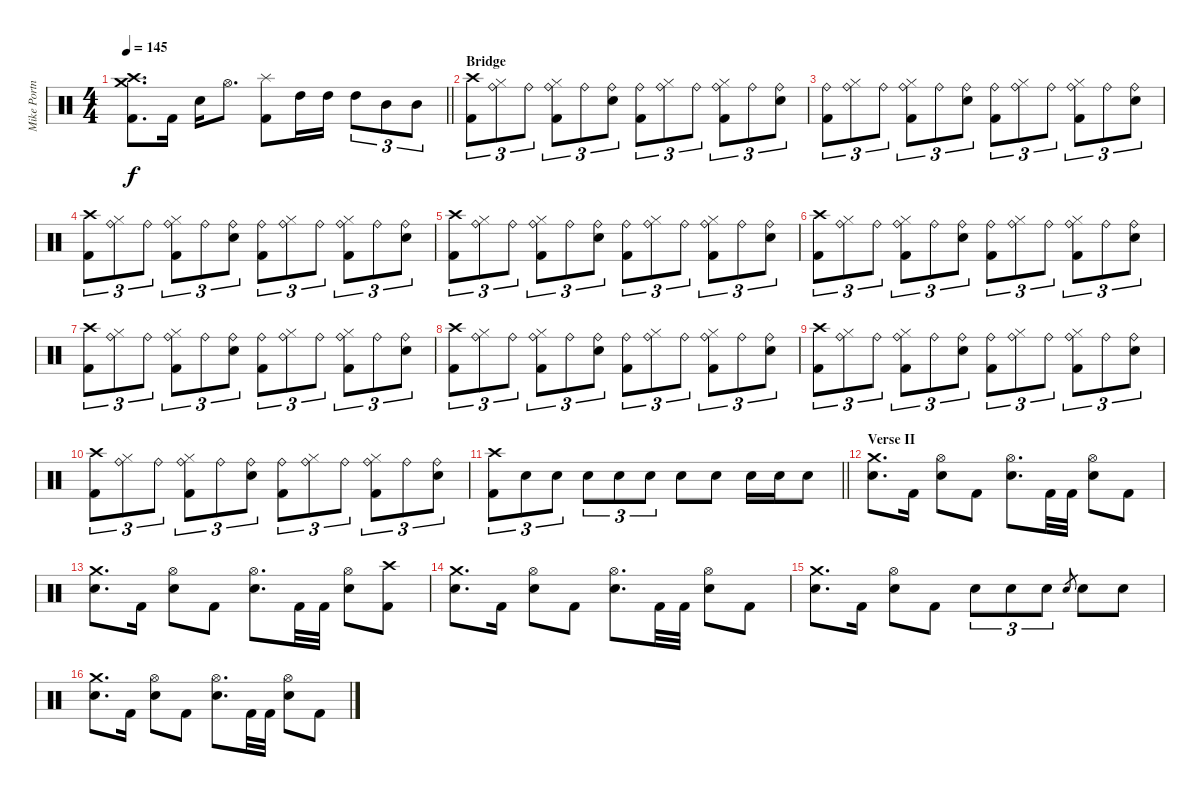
\track ("Mike Portnoy" "Mike Portn") {instrument percussion}
\staff {score}
\articulation defaults
\ts (4 4)
\tempo 145
\clef neutral
\barLineRight lightlight
\ks c
("Crash high (hit)" "Crash medium (hit)" "Kick (hit) 2").8{d dy f} "Kick (hit) 2".16 "Electric Snare (hit)".16 "Hi-Hat (open)".8{d} ("Splash (hit)" "Kick (hit) 2").8 "High Tom (hit)".16 "High Tom (hit)".16 "High Tom (hit)".8{tu (3 2)} "Mid Tom (hit)".8{tu (3 2)} "Mid Tom (hit)".8{tu (3 2)} |
\section ("" "Bridge")
("Crash high (hit)" "Kick (hit) 2").8{tu (3 2)} ("Ride (bell)" "Hi-Hat (closed)").8{tu (3 2)} "Ride (bell)".8{tu (3 2)} ("Ride (bell)" "Hi-Hat (closed)" "Kick (hit) 2").8{tu (3 2)} "Ride (bell)".8{tu (3 2)} ("Ride (bell)" "Electric Snare (hit)").8{tu (3 2)} ("Ride (bell)" "Kick (hit) 2").8{tu (3 2)} ("Ride (bell)" "Hi-Hat (closed)").8{tu (3 2)} "Ride (bell)".8{tu (3 2)} ("Ride (bell)" "Hi-Hat (closed)" "Kick (hit) 2").8{tu (3 2)} "Ride (bell)".8{tu (3 2)} ("Ride (bell)" "Electric Snare (hit)").8{tu (3 2)} |
("Ride (bell)" "Kick (hit) 2").8{tu (3 2)} ("Ride (bell)" "Hi-Hat (closed)").8{tu (3 2)} "Ride (bell)".8{tu (3 2)} ("Ride (bell)" "Hi-Hat (closed)" "Kick (hit) 2").8{tu (3 2)} "Ride (bell)".8{tu (3 2)} ("Ride (bell)" "Electric Snare (hit)").8{tu (3 2)} ("Ride (bell)" "Kick (hit) 2").8{tu (3 2)} ("Ride (bell)" "Hi-Hat (closed)").8{tu (3 2)} "Ride (bell)".8{tu (3 2)} ("Ride (bell)" "Hi-Hat (closed)" "Kick (hit) 2").8{tu (3 2)} "Ride (bell)".8{tu (3 2)} ("Ride (bell)" "Electric Snare (hit)").8{tu (3 2)} |
("Crash high (hit)" "Kick (hit) 2").8{tu (3 2)} ("Ride (bell)" "Hi-Hat (closed)").8{tu (3 2)} "Ride (bell)".8{tu (3 2)} ("Ride (bell)" "Hi-Hat (closed)" "Kick (hit) 2").8{tu (3 2)} "Ride (bell)".8{tu (3 2)} ("Ride (bell)" "Electric Snare (hit)").8{tu (3 2)} ("Ride (bell)" "Kick (hit) 2").8{tu (3 2)} ("Ride (bell)" "Hi-Hat (closed)").8{tu (3 2)} "Ride (bell)".8{tu (3 2)} ("Ride (bell)" "Hi-Hat (closed)" "Kick (hit) 2").8{tu (3 2)} "Ride (bell)".8{tu (3 2)} ("Ride (bell)" "Electric Snare (hit)").8{tu (3 2)} |
("Crash high (hit)" "Kick (hit) 2").8{tu (3 2)} ("Ride (bell)" "Hi-Hat (closed)").8{tu (3 2)} "Ride (bell)".8{tu (3 2)} ("Ride (bell)" "Hi-Hat (closed)" "Kick (hit) 2").8{tu (3 2)} "Ride (bell)".8{tu (3 2)} ("Ride (bell)" "Electric Snare (hit)").8{tu (3 2)} ("Ride (bell)" "Kick (hit) 2").8{tu (3 2)} ("Ride (bell)" "Hi-Hat (closed)").8{tu (3 2)} "Ride (bell)".8{tu (3 2)} ("Ride (bell)" "Hi-Hat (closed)" "Kick (hit) 2").8{tu (3 2)} "Ride (bell)".8{tu (3 2)} ("Ride (bell)" "Electric Snare (hit)").8{tu (3 2)} |
("Crash high (hit)" "Kick (hit) 2").8{tu (3 2)} ("Ride (bell)" "Hi-Hat (closed)").8{tu (3 2)} "Ride (bell)".8{tu (3 2)} ("Ride (bell)" "Hi-Hat (closed)" "Kick (hit) 2").8{tu (3 2)} "Ride (bell)".8{tu (3 2)} ("Ride (bell)" "Electric Snare (hit)").8{tu (3 2)} ("Ride (bell)" "Kick (hit) 2").8{tu (3 2)} ("Ride (bell)" "Hi-Hat (closed)").8{tu (3 2)} "Ride (bell)".8{tu (3 2)} ("Ride (bell)" "Hi-Hat (closed)" "Kick (hit) 2").8{tu (3 2)} "Ride (bell)".8{tu (3 2)} ("Ride (bell)" "Electric Snare (hit)").8{tu (3 2)} |
("Crash high (hit)" "Kick (hit) 2").8{tu (3 2)} ("Ride (bell)" "Hi-Hat (closed)").8{tu (3 2)} "Ride (bell)".8{tu (3 2)} ("Ride (bell)" "Hi-Hat (closed)" "Kick (hit) 2").8{tu (3 2)} "Ride (bell)".8{tu (3 2)} ("Ride (bell)" "Electric Snare (hit)").8{tu (3 2)} ("Ride (bell)" "Kick (hit) 2").8{tu (3 2)} ("Ride (bell)" "Hi-Hat (closed)").8{tu (3 2)} "Ride (bell)".8{tu (3 2)} ("Ride (bell)" "Hi-Hat (closed)" "Kick (hit) 2").8{tu (3 2)} "Ride (bell)".8{tu (3 2)} ("Ride (bell)" "Electric Snare (hit)").8{tu (3 2)} |
("Crash high (hit)" "Kick (hit) 2").8{tu (3 2)} ("Ride (bell)" "Hi-Hat (closed)").8{tu (3 2)} "Ride (bell)".8{tu (3 2)} ("Ride (bell)" "Hi-Hat (closed)" "Kick (hit) 2").8{tu (3 2)} "Ride (bell)".8{tu (3 2)} ("Ride (bell)" "Electric Snare (hit)").8{tu (3 2)} ("Ride (bell)" "Kick (hit) 2").8{tu (3 2)} ("Ride (bell)" "Hi-Hat (closed)").8{tu (3 2)} "Ride (bell)".8{tu (3 2)} ("Ride (bell)" "Hi-Hat (closed)" "Kick (hit) 2").8{tu (3 2)} "Ride (bell)".8{tu (3 2)} ("Ride (bell)" "Electric Snare (hit)").8{tu (3 2)} |
("Crash high (hit)" "Kick (hit) 2").8{tu (3 2)} ("Ride (bell)" "Hi-Hat (closed)").8{tu (3 2)} "Ride (bell)".8{tu (3 2)} ("Ride (bell)" "Hi-Hat (closed)" "Kick (hit) 2").8{tu (3 2)} "Ride (bell)".8{tu (3 2)} ("Ride (bell)" "Electric Snare (hit)").8{tu (3 2)} ("Ride (bell)" "Kick (hit) 2").8{tu (3 2)} ("Ride (bell)" "Hi-Hat (closed)").8{tu (3 2)} "Ride (bell)".8{tu (3 2)} ("Ride (bell)" "Hi-Hat (closed)" "Kick (hit) 2").8{tu (3 2)} "Ride (bell)".8{tu (3 2)} ("Ride (bell)" "Electric Snare (hit)").8{tu (3 2)} |
("Crash high (hit)" "Kick (hit) 2").8{tu (3 2)} ("Ride (bell)" "Hi-Hat (closed)").8{tu (3 2)} "Ride (bell)".8{tu (3 2)} ("Ride (bell)" "Hi-Hat (closed)" "Kick (hit) 2").8{tu (3 2)} "Ride (bell)".8{tu (3 2)} ("Ride (bell)" "Electric Snare (hit)").8{tu (3 2)} ("Ride (bell)" "Kick (hit) 2").8{tu (3 2)} ("Ride (bell)" "Hi-Hat (closed)").8{tu (3 2)} "Ride (bell)".8{tu (3 2)} ("Ride (bell)" "Hi-Hat (closed)" "Kick (hit) 2").8{tu (3 2)} "Ride (bell)".8{tu (3 2)} ("Ride (bell)" "Electric Snare (hit)").8{tu (3 2)} |
\barLineRight lightlight
("Crash high (hit)" "Kick (hit) 2").8{tu (3 2)} "Electric Snare (hit)".8{tu (3 2)} "Electric Snare (hit)".8{tu (3 2)} "Electric Snare (hit)".8{tu (3 2)} "Electric Snare (hit)".8{tu (3 2)} "Electric Snare (hit)".8{tu (3 2)} "Electric Snare (hit)".8 "Electric Snare (hit)".8 "Electric Snare (hit)".16 "Electric Snare (hit)".16 "Electric Snare (hit)".8 |
\section ("" "Verse II")
("Crash medium (hit)" "Electric Snare (hit)").8{d} "Kick (hit) 2".16 ("Hi-Hat (open)" "Electric Snare (hit)").8 "Kick (hit) 2".8 ("Hi-Hat (open)" "Electric Snare (hit)").8{d} "Kick (hit) 2".32 "Kick (hit) 2".32 ("Hi-Hat (open)" "Electric Snare (hit)").8 "Kick (hit) 2".8 |
("Crash medium (hit)" "Electric Snare (hit)").8{d} "Kick (hit) 2".16 ("Hi-Hat (open)" "Electric Snare (hit)").8 "Kick (hit) 2".8 ("Hi-Hat (open)" "Electric Snare (hit)").8{d} "Kick (hit) 2".32 "Kick (hit) 2".32 ("Hi-Hat (open)" "Electric Snare (hit)").8 ("Crash high (hit)" "Kick (hit) 2").8 |
("Crash medium (hit)" "Electric Snare (hit)").8{d} "Kick (hit) 2".16 ("Hi-Hat (open)" "Electric Snare (hit)").8 "Kick (hit) 2".8 ("Hi-Hat (open)" "Electric Snare (hit)").8{d} "Kick (hit) 2".32 "Kick (hit) 2".32 ("Hi-Hat (open)" "Electric Snare (hit)").8 "Kick (hit) 2".8 |
("Crash medium (hit)" "Electric Snare (hit)").8{d} "Kick (hit) 2".16 ("Hi-Hat (open)" "Electric Snare (hit)").8 "Kick (hit) 2".8 "Electric Snare (hit)".8{tu (3 2)} "Electric Snare (hit)".8{tu (3 2)} "Electric Snare (hit)".8{tu (3 2)} "Electric Snare (hit)".8{gr} "Electric Snare (hit)".8 "Electric Snare (hit)".8 |
("Crash medium (hit)" "Electric Snare (hit)").8{d} "Kick (hit) 2".16 ("Hi-Hat (open)" "Electric Snare (hit)").8 "Kick (hit) 2".8 ("Hi-Hat (open)" "Electric Snare (hit)").8{d} "Kick (hit) 2".32 "Kick (hit) 2".32 ("Hi-Hat (open)" "Electric Snare (hit)").8 "Kick (hit) 2".8
